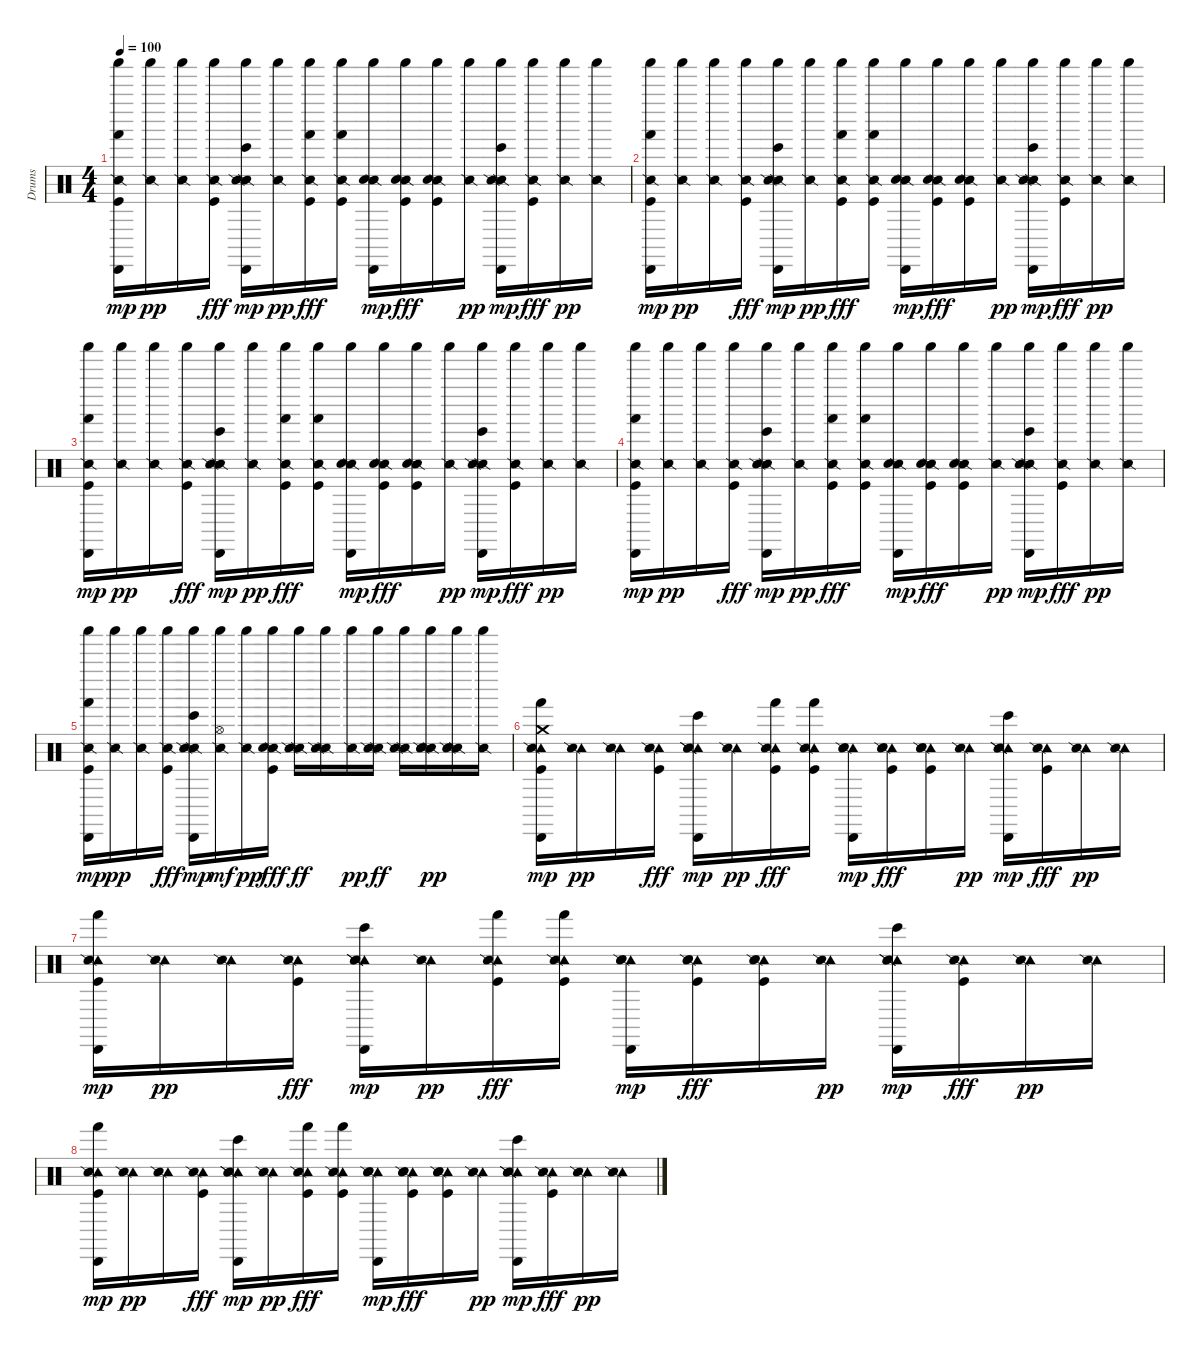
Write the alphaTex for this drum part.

\track ("Drums" "Drums") {instrument percussion}
\staff {score}
\articulation defaults
\ts (4 4)
\tempo 100
\clef neutral
\ks c
("Shaker (hit)" "Snare (side stick) 2" "Hand (hit)" "Kick (hit)" "Cabasa (hit)").16{dy mp} ("Shaker (hit)" "Snare (side stick) 2").16{dy pp} ("Shaker (hit)" "Snare (side stick) 2").16 ("Shaker (hit)" "Snare (side stick) 2" "Kick (hit)").16{dy fff} ("Shaker (hit)" "Snare (side stick) 2" "Bongo High (hit)" "Snare (side stick) 2" "Cabasa (hit)").16{dy mp} ("Shaker (hit)" "Snare (side stick) 2").16{dy pp} ("Shaker (hit)" "Snare (side stick) 2" "Hand (hit)" "Kick (hit)").16{dy fff} ("Shaker (hit)" "Snare (side stick) 2" "Hand (hit)" "Kick (hit)").16 ("Shaker (hit)" "Snare (side stick) 2" "Snare (hit)" "Cabasa (hit)").16{dy mp} ("Shaker (hit)" "Snare (side stick) 2" "Snare (hit)" "Kick (hit)").16{dy fff} ("Shaker (hit)" "Snare (side stick) 2" "Snare (hit)" "Kick (hit)").16 ("Shaker (hit)" "Snare (side stick) 2").16{dy pp} ("Shaker (hit)" "Snare (side stick) 2" "Bongo High (hit)" "Snare (side stick) 2" "Cabasa (hit)").16{dy mp} ("Shaker (hit)" "Snare (side stick) 2" "Kick (hit)").16{dy fff} ("Shaker (hit)" "Snare (side stick) 2").16{dy pp} ("Shaker (hit)" "Snare (side stick) 2").16 |
("Shaker (hit)" "Snare (side stick) 2" "Hand (hit)" "Kick (hit)" "Cabasa (hit)").16{dy mp} ("Shaker (hit)" "Snare (side stick) 2").16{dy pp} ("Shaker (hit)" "Snare (side stick) 2").16 ("Shaker (hit)" "Snare (side stick) 2" "Kick (hit)").16{dy fff} ("Shaker (hit)" "Snare (side stick) 2" "Bongo High (hit)" "Snare (side stick) 2" "Cabasa (hit)").16{dy mp} ("Shaker (hit)" "Snare (side stick) 2").16{dy pp} ("Shaker (hit)" "Snare (side stick) 2" "Hand (hit)" "Kick (hit)").16{dy fff} ("Shaker (hit)" "Snare (side stick) 2" "Hand (hit)" "Kick (hit)").16 ("Shaker (hit)" "Snare (side stick) 2" "Snare (hit)" "Cabasa (hit)").16{dy mp} ("Shaker (hit)" "Snare (side stick) 2" "Snare (hit)" "Kick (hit)").16{dy fff} ("Shaker (hit)" "Snare (side stick) 2" "Snare (hit)" "Kick (hit)").16 ("Shaker (hit)" "Snare (side stick) 2").16{dy pp} ("Shaker (hit)" "Snare (side stick) 2" "Bongo High (hit)" "Snare (side stick) 2" "Cabasa (hit)").16{dy mp} ("Shaker (hit)" "Snare (side stick) 2" "Kick (hit)").16{dy fff} ("Shaker (hit)" "Snare (side stick) 2").16{dy pp} ("Shaker (hit)" "Snare (side stick) 2").16 |
("Shaker (hit)" "Snare (side stick) 2" "Hand (hit)" "Kick (hit)" "Cabasa (hit)").16{dy mp} ("Shaker (hit)" "Snare (side stick) 2").16{dy pp} ("Shaker (hit)" "Snare (side stick) 2").16 ("Shaker (hit)" "Snare (side stick) 2" "Kick (hit)").16{dy fff} ("Shaker (hit)" "Snare (side stick) 2" "Bongo High (hit)" "Snare (side stick) 2" "Cabasa (hit)").16{dy mp} ("Shaker (hit)" "Snare (side stick) 2").16{dy pp} ("Shaker (hit)" "Snare (side stick) 2" "Hand (hit)" "Kick (hit)").16{dy fff} ("Shaker (hit)" "Snare (side stick) 2" "Hand (hit)" "Kick (hit)").16 ("Shaker (hit)" "Snare (side stick) 2" "Snare (hit)" "Cabasa (hit)").16{dy mp} ("Shaker (hit)" "Snare (side stick) 2" "Snare (hit)" "Kick (hit)").16{dy fff} ("Shaker (hit)" "Snare (side stick) 2" "Snare (hit)" "Kick (hit)").16 ("Shaker (hit)" "Snare (side stick) 2").16{dy pp} ("Shaker (hit)" "Snare (side stick) 2" "Bongo High (hit)" "Snare (side stick) 2" "Cabasa (hit)").16{dy mp} ("Shaker (hit)" "Snare (side stick) 2" "Kick (hit)").16{dy fff} ("Shaker (hit)" "Snare (side stick) 2").16{dy pp} ("Shaker (hit)" "Snare (side stick) 2").16 |
("Shaker (hit)" "Snare (side stick) 2" "Hand (hit)" "Kick (hit)" "Cabasa (hit)").16{dy mp} ("Shaker (hit)" "Snare (side stick) 2").16{dy pp} ("Shaker (hit)" "Snare (side stick) 2").16 ("Shaker (hit)" "Snare (side stick) 2" "Kick (hit)").16{dy fff} ("Shaker (hit)" "Snare (side stick) 2" "Bongo High (hit)" "Snare (side stick) 2" "Cabasa (hit)").16{dy mp} ("Shaker (hit)" "Snare (side stick) 2").16{dy pp} ("Shaker (hit)" "Snare (side stick) 2" "Hand (hit)" "Kick (hit)").16{dy fff} ("Shaker (hit)" "Snare (side stick) 2" "Hand (hit)" "Kick (hit)").16 ("Shaker (hit)" "Snare (side stick) 2" "Snare (hit)" "Cabasa (hit)").16{dy mp} ("Shaker (hit)" "Snare (side stick) 2" "Snare (hit)" "Kick (hit)").16{dy fff} ("Shaker (hit)" "Snare (side stick) 2" "Snare (hit)" "Kick (hit)").16 ("Shaker (hit)" "Snare (side stick) 2").16{dy pp} ("Shaker (hit)" "Snare (side stick) 2" "Bongo High (hit)" "Snare (side stick) 2" "Cabasa (hit)").16{dy mp} ("Shaker (hit)" "Snare (side stick) 2" "Kick (hit)").16{dy fff} ("Shaker (hit)" "Snare (side stick) 2").16{dy pp} ("Shaker (hit)" "Snare (side stick) 2").16 |
("Shaker (hit)" "Snare (side stick) 2" "Hand (hit)" "Kick (hit)" "Cabasa (hit)").16{dy mp} ("Shaker (hit)" "Snare (side stick) 2").16{dy pp} ("Shaker (hit)" "Snare (side stick) 2").16 ("Shaker (hit)" "Snare (side stick) 2" "Kick (hit)").16{dy fff} ("Shaker (hit)" "Snare (side stick) 2" "Bongo High (hit)" "Snare (side stick) 2" "Cabasa (hit)").16{dy mp} ("Shaker (hit)" "Snare (side stick) 2" "Hi-Hat (open)").16{dy mf} ("Shaker (hit)" "Snare (side stick) 2").16{dy pp} ("Shaker (hit)" "Snare (side stick) 2" "Snare (hit)" "Kick (hit)").16{dy fff} ("Shaker (hit)" "Snare (side stick) 2" "Snare (side stick) 2").16{dy ff} ("Shaker (hit)" "Snare (side stick) 2" "Snare (side stick) 2").16 ("Shaker (hit)" "Snare (side stick) 2").16{dy pp} ("Shaker (hit)" "Snare (side stick) 2" "Snare (side stick) 2").16{dy ff} ("Shaker (hit)" "Snare (side stick) 2" "Snare (side stick) 2").16 ("Shaker (hit)" "Snare (side stick) 2" "Snare (side stick) 2" "Snare (hit) 2").16{dy pp} ("Shaker (hit)" "Snare (side stick) 2" "Snare (side stick) 2" "Snare (hit) 2").16 ("Shaker (hit)" "Snare (side stick) 2").16 |
("Tambourine (hit)" "Snare (side stick) 2" "Hand (hit)" "Crash medium (hit)" "Kick (hit)" "Cabasa (hit)").16{dy mp} ("Tambourine (hit)" "Snare (side stick) 2").16{dy pp} ("Tambourine (hit)" "Snare (side stick) 2").16 ("Tambourine (hit)" "Snare (side stick) 2" "Kick (hit)").16{dy fff} ("Tambourine (hit)" "Snare (side stick) 2" "Bongo High (hit)" "Snare (side stick) 2" "Cabasa (hit)").16{dy mp} ("Tambourine (hit)" "Snare (side stick) 2").16{dy pp} ("Tambourine (hit)" "Snare (side stick) 2" "Hand (hit)" "Kick (hit)").16{dy fff} ("Tambourine (hit)" "Snare (side stick) 2" "Hand (hit)" "Kick (hit)").16 ("Tambourine (hit)" "Snare (side stick) 2" "Snare (hit)" "Cabasa (hit)").16{dy mp} ("Tambourine (hit)" "Snare (side stick) 2" "Snare (hit)" "Kick (hit)").16{dy fff} ("Tambourine (hit)" "Snare (side stick) 2" "Snare (hit)" "Kick (hit)").16 ("Tambourine (hit)" "Snare (side stick) 2").16{dy pp} ("Tambourine (hit)" "Snare (side stick) 2" "Bongo High (hit)" "Snare (side stick) 2" "Cabasa (hit)").16{dy mp} ("Tambourine (hit)" "Snare (side stick) 2" "Kick (hit)").16{dy fff} ("Tambourine (hit)" "Snare (side stick) 2").16{dy pp} ("Tambourine (hit)" "Snare (side stick) 2").16 |
("Tambourine (hit)" "Snare (side stick) 2" "Hand (hit)" "Kick (hit)" "Cabasa (hit)").16{dy mp} ("Tambourine (hit)" "Snare (side stick) 2").16{dy pp} ("Tambourine (hit)" "Snare (side stick) 2").16 ("Tambourine (hit)" "Snare (side stick) 2" "Kick (hit)").16{dy fff} ("Tambourine (hit)" "Snare (side stick) 2" "Bongo High (hit)" "Snare (side stick) 2" "Cabasa (hit)").16{dy mp} ("Tambourine (hit)" "Snare (side stick) 2").16{dy pp} ("Tambourine (hit)" "Snare (side stick) 2" "Hand (hit)" "Kick (hit)").16{dy fff} ("Tambourine (hit)" "Snare (side stick) 2" "Hand (hit)" "Kick (hit)").16 ("Tambourine (hit)" "Snare (side stick) 2" "Snare (hit)" "Cabasa (hit)").16{dy mp} ("Tambourine (hit)" "Snare (side stick) 2" "Snare (hit)" "Kick (hit)").16{dy fff} ("Tambourine (hit)" "Snare (side stick) 2" "Snare (hit)" "Kick (hit)").16 ("Tambourine (hit)" "Snare (side stick) 2").16{dy pp} ("Tambourine (hit)" "Snare (side stick) 2" "Bongo High (hit)" "Snare (side stick) 2" "Cabasa (hit)").16{dy mp} ("Tambourine (hit)" "Snare (side stick) 2" "Kick (hit)").16{dy fff} ("Tambourine (hit)" "Snare (side stick) 2").16{dy pp} ("Tambourine (hit)" "Snare (side stick) 2").16 |
("Tambourine (hit)" "Snare (side stick) 2" "Hand (hit)" "Kick (hit)" "Cabasa (hit)").16{dy mp} ("Tambourine (hit)" "Snare (side stick) 2").16{dy pp} ("Tambourine (hit)" "Snare (side stick) 2").16 ("Tambourine (hit)" "Snare (side stick) 2" "Kick (hit)").16{dy fff} ("Tambourine (hit)" "Snare (side stick) 2" "Bongo High (hit)" "Snare (side stick) 2" "Cabasa (hit)").16{dy mp} ("Tambourine (hit)" "Snare (side stick) 2").16{dy pp} ("Tambourine (hit)" "Snare (side stick) 2" "Hand (hit)" "Kick (hit)").16{dy fff} ("Tambourine (hit)" "Snare (side stick) 2" "Hand (hit)" "Kick (hit)").16 ("Tambourine (hit)" "Snare (side stick) 2" "Snare (hit)" "Cabasa (hit)").16{dy mp} ("Tambourine (hit)" "Snare (side stick) 2" "Snare (hit)" "Kick (hit)").16{dy fff} ("Tambourine (hit)" "Snare (side stick) 2" "Snare (hit)" "Kick (hit)").16 ("Tambourine (hit)" "Snare (side stick) 2").16{dy pp} ("Tambourine (hit)" "Snare (side stick) 2" "Bongo High (hit)" "Snare (side stick) 2" "Cabasa (hit)").16{dy mp} ("Tambourine (hit)" "Snare (side stick) 2" "Kick (hit)").16{dy fff} ("Tambourine (hit)" "Snare (side stick) 2").16{dy pp} ("Tambourine (hit)" "Snare (side stick) 2").16
